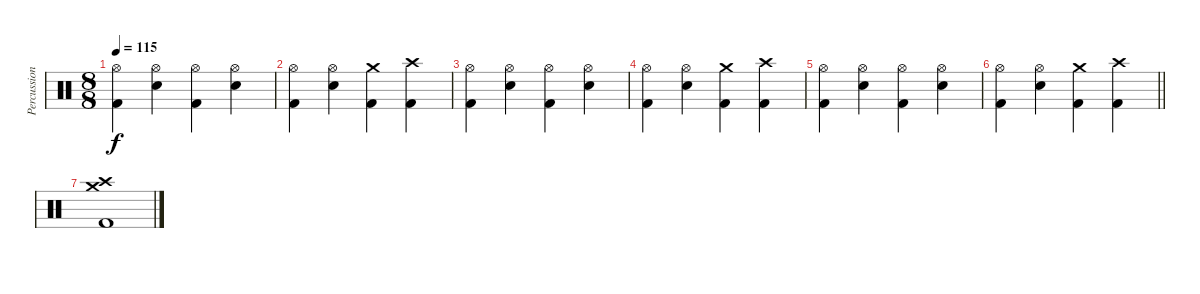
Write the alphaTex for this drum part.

\track ("Percussion" "Percussion") {instrument percussion}
\staff {score}
\articulation defaults
\ts (8 8)
\tempo 115
\clef neutral
\ks c
("Hi-Hat (open)" "Kick (hit) 2").4{dy f} ("Hi-Hat (open)" "Snare (hit) 2").4 ("Hi-Hat (open)" "Kick (hit) 2").4 ("Hi-Hat (open)" "Snare (hit) 2").4 |
("Hi-Hat (open)" "Kick (hit) 2").4 ("Hi-Hat (open)" "Snare (hit) 2").4 ("Crash medium (hit)" "Kick (hit) 2").4 ("Crash high (hit)" "Kick (hit) 2").4 |
("Hi-Hat (open)" "Kick (hit) 2").4 ("Hi-Hat (open)" "Snare (hit) 2").4 ("Hi-Hat (open)" "Kick (hit) 2").4 ("Hi-Hat (open)" "Snare (hit) 2").4 |
("Hi-Hat (open)" "Kick (hit) 2").4 ("Hi-Hat (open)" "Snare (hit) 2").4 ("Crash medium (hit)" "Kick (hit) 2").4 ("Crash high (hit)" "Kick (hit) 2").4 |
("Hi-Hat (open)" "Kick (hit) 2").4 ("Hi-Hat (open)" "Snare (hit) 2").4 ("Hi-Hat (open)" "Kick (hit) 2").4 ("Hi-Hat (open)" "Snare (hit) 2").4 |
\barLineRight lightlight
("Hi-Hat (open)" "Kick (hit) 2").4 ("Hi-Hat (open)" "Snare (hit) 2").4 ("Crash medium (hit)" "Kick (hit) 2").4 ("Crash high (hit)" "Kick (hit) 2").4 |
("Kick (hit) 2" "Crash high (hit)" "Crash medium (hit)").1
